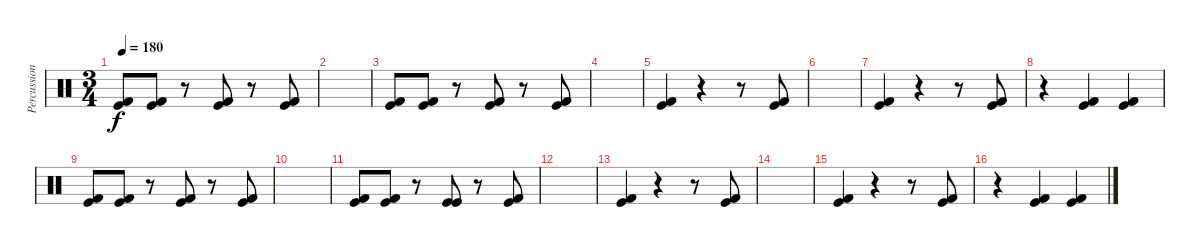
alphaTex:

\track ("Percussion" "Percussion") {instrument percussion}
\staff {score}
\articulation defaults
\ts (3 4)
\tempo 180
\clef neutral
\ks c
("Kick (hit) 2" "Kick (hit)").8{dy f} ("Kick (hit) 2" "Kick (hit)").8 r.8 ("Kick (hit) 2" "Kick (hit)").8 r.8 ("Kick (hit)" "Kick (hit) 2").8 |
|
("Kick (hit) 2" "Kick (hit)").8 ("Kick (hit) 2" "Kick (hit)").8 r.8 ("Kick (hit) 2" "Kick (hit)").8 r.8 ("Kick (hit) 2" "Kick (hit)").8 |
|
("Kick (hit) 2" "Kick (hit)").4 r.4 r.8 ("Kick (hit) 2" "Kick (hit)").8 |
|
("Kick (hit) 2" "Kick (hit)").4 r.4 r.8 ("Kick (hit) 2" "Kick (hit)").8 |
r.4 ("Kick (hit) 2" "Kick (hit)").4 ("Kick (hit) 2" "Kick (hit)").4 |
("Kick (hit) 2" "Kick (hit)").8 ("Kick (hit) 2" "Kick (hit)").8 r.8 ("Kick (hit) 2" "Kick (hit)").8 r.8 ("Kick (hit) 2" "Kick (hit)").8 |
|
("Kick (hit) 2" "Kick (hit)").8 ("Kick (hit) 2" "Kick (hit)").8 r.8 ("Kick (hit)" "Kick (hit)").8 r.8 ("Kick (hit) 2" "Kick (hit)").8 |
|
("Kick (hit) 2" "Kick (hit)").4 r.4 r.8 ("Kick (hit) 2" "Kick (hit)").8 |
|
("Kick (hit) 2" "Kick (hit)").4 r.4 r.8 ("Kick (hit) 2" "Kick (hit)").8 |
r.4 ("Kick (hit) 2" "Kick (hit)").4 ("Kick (hit) 2" "Kick (hit)").4
